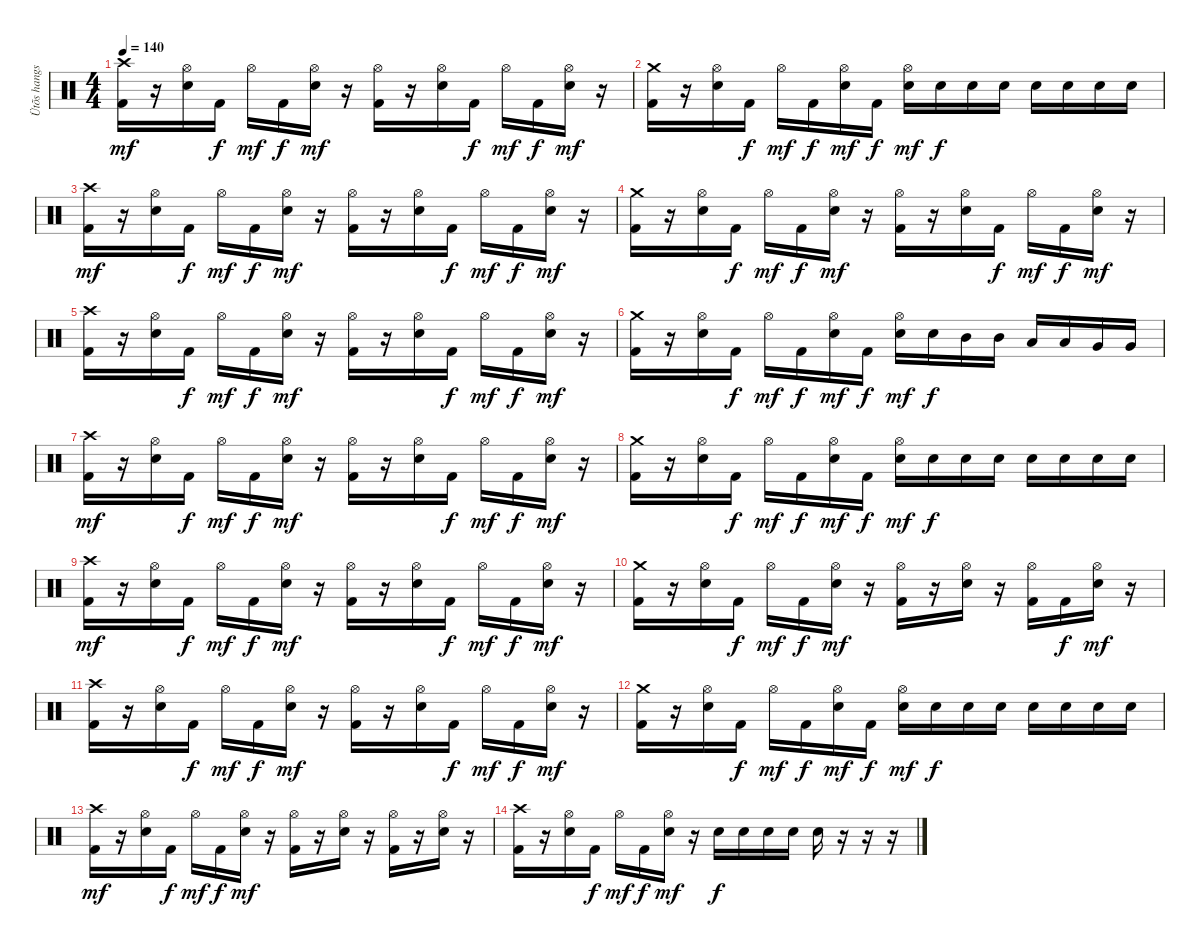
\track ("Ütõs hangszer" "Ütõs hangs") {instrument percussion}
\staff {score}
\articulation defaults
\ts (4 4)
\tempo 140
\clef neutral
\ks c
("Crash high (hit)" "Kick (hit) 2").16{dy mf} r.16 ("Hi-Hat (open)" "Electric Snare (hit)").16 "Kick (hit) 2".16{dy f} "Hi-Hat (open)".16{dy mf} "Kick (hit) 2".16{dy f} ("Hi-Hat (open)" "Electric Snare (hit)").16{dy mf} r.16 ("Hi-Hat (open)" "Kick (hit) 2").16 r.16 ("Hi-Hat (open)" "Electric Snare (hit)").16 "Kick (hit) 2".16{dy f} "Hi-Hat (open)".16{dy mf} "Kick (hit) 2".16{dy f} ("Hi-Hat (open)" "Electric Snare (hit)").16{dy mf} r.16 |
("Crash medium (hit)" "Kick (hit) 2").16 r.16 ("Hi-Hat (open)" "Electric Snare (hit)").16 "Kick (hit) 2".16{dy f} "Hi-Hat (open)".16{dy mf} "Kick (hit) 2".16{dy f} ("Hi-Hat (open)" "Electric Snare (hit)").16{dy mf} "Kick (hit) 2".16{dy f} ("Hi-Hat (open)" "Electric Snare (hit)").16{dy mf} "Electric Snare (hit)".16{dy f} "Electric Snare (hit)".16 "Electric Snare (hit)".16 "Electric Snare (hit)".16 "Electric Snare (hit)".16 "Electric Snare (hit)".16 "Electric Snare (hit)".16 |
("Crash high (hit)" "Kick (hit) 2").16{dy mf} r.16 ("Hi-Hat (open)" "Electric Snare (hit)").16 "Kick (hit) 2".16{dy f} "Hi-Hat (open)".16{dy mf} "Kick (hit) 2".16{dy f} ("Hi-Hat (open)" "Electric Snare (hit)").16{dy mf} r.16 ("Hi-Hat (open)" "Kick (hit) 2").16 r.16 ("Hi-Hat (open)" "Electric Snare (hit)").16 "Kick (hit) 2".16{dy f} "Hi-Hat (open)".16{dy mf} "Kick (hit) 2".16{dy f} ("Hi-Hat (open)" "Electric Snare (hit)").16{dy mf} r.16 |
("Crash medium (hit)" "Kick (hit) 2").16 r.16 ("Hi-Hat (open)" "Electric Snare (hit)").16 "Kick (hit) 2".16{dy f} "Hi-Hat (open)".16{dy mf} "Kick (hit) 2".16{dy f} ("Hi-Hat (open)" "Electric Snare (hit)").16{dy mf} r.16 ("Hi-Hat (open)" "Kick (hit) 2").16 r.16 ("Hi-Hat (open)" "Electric Snare (hit)").16 "Kick (hit) 2".16{dy f} "Hi-Hat (open)".16{dy mf} "Kick (hit) 2".16{dy f} ("Hi-Hat (open)" "Electric Snare (hit)").16{dy mf} r.16 |
("Crash high (hit)" "Kick (hit) 2").16 r.16 ("Hi-Hat (open)" "Electric Snare (hit)").16 "Kick (hit) 2".16{dy f} "Hi-Hat (open)".16{dy mf} "Kick (hit) 2".16{dy f} ("Hi-Hat (open)" "Electric Snare (hit)").16{dy mf} r.16 ("Hi-Hat (open)" "Kick (hit) 2").16 r.16 ("Hi-Hat (open)" "Electric Snare (hit)").16 "Kick (hit) 2".16{dy f} "Hi-Hat (open)".16{dy mf} "Kick (hit) 2".16{dy f} ("Hi-Hat (open)" "Electric Snare (hit)").16{dy mf} r.16 |
("Crash medium (hit)" "Kick (hit) 2").16 r.16 ("Hi-Hat (open)" "Electric Snare (hit)").16 "Kick (hit) 2".16{dy f} "Hi-Hat (open)".16{dy mf} "Kick (hit) 2".16{dy f} ("Hi-Hat (open)" "Electric Snare (hit)").16{dy mf} "Kick (hit) 2".16{dy f} ("Hi-Hat (open)" "Electric Snare (hit)").16{dy mf} "Electric Snare (hit)".16{dy f} "Mid Tom (hit)".16 "Mid Tom (hit)".16 "Low Tom (hit)".16 "Low Tom (hit)".16 "Very Low Tom (hit)".16 "Very Low Tom (hit)".16 |
("Crash high (hit)" "Kick (hit) 2").16{dy mf} r.16 ("Hi-Hat (open)" "Electric Snare (hit)").16 "Kick (hit) 2".16{dy f} "Hi-Hat (open)".16{dy mf} "Kick (hit) 2".16{dy f} ("Hi-Hat (open)" "Electric Snare (hit)").16{dy mf} r.16 ("Hi-Hat (open)" "Kick (hit) 2").16 r.16 ("Hi-Hat (open)" "Electric Snare (hit)").16 "Kick (hit) 2".16{dy f} "Hi-Hat (open)".16{dy mf} "Kick (hit) 2".16{dy f} ("Hi-Hat (open)" "Electric Snare (hit)").16{dy mf} r.16 |
("Crash medium (hit)" "Kick (hit) 2").16 r.16 ("Hi-Hat (open)" "Electric Snare (hit)").16 "Kick (hit) 2".16{dy f} "Hi-Hat (open)".16{dy mf} "Kick (hit) 2".16{dy f} ("Hi-Hat (open)" "Electric Snare (hit)").16{dy mf} "Kick (hit) 2".16{dy f} ("Hi-Hat (open)" "Electric Snare (hit)").16{dy mf} "Electric Snare (hit)".16{dy f} "Electric Snare (hit)".16 "Electric Snare (hit)".16 "Electric Snare (hit)".16 "Electric Snare (hit)".16 "Electric Snare (hit)".16 "Electric Snare (hit)".16 |
("Crash high (hit)" "Kick (hit) 2").16{dy mf} r.16 ("Hi-Hat (open)" "Electric Snare (hit)").16 "Kick (hit) 2".16{dy f} "Hi-Hat (open)".16{dy mf} "Kick (hit) 2".16{dy f} ("Hi-Hat (open)" "Electric Snare (hit)").16{dy mf} r.16 ("Hi-Hat (open)" "Kick (hit) 2").16 r.16 ("Hi-Hat (open)" "Electric Snare (hit)").16 "Kick (hit) 2".16{dy f} "Hi-Hat (open)".16{dy mf} "Kick (hit) 2".16{dy f} ("Hi-Hat (open)" "Electric Snare (hit)").16{dy mf} r.16 |
("Crash medium (hit)" "Kick (hit) 2").16 r.16 ("Hi-Hat (open)" "Electric Snare (hit)").16 "Kick (hit) 2".16{dy f} "Hi-Hat (open)".16{dy mf} "Kick (hit) 2".16{dy f} ("Hi-Hat (open)" "Electric Snare (hit)").16{dy mf} r.16 ("Hi-Hat (open)" "Kick (hit) 2").16 r.16 ("Hi-Hat (open)" "Electric Snare (hit)").16 r.16 ("Hi-Hat (open)" "Kick (hit) 2").16 "Kick (hit) 2".16{dy f} ("Hi-Hat (open)" "Electric Snare (hit)").16{dy mf} r.16 |
("Crash high (hit)" "Kick (hit) 2").16 r.16 ("Hi-Hat (open)" "Electric Snare (hit)").16 "Kick (hit) 2".16{dy f} "Hi-Hat (open)".16{dy mf} "Kick (hit) 2".16{dy f} ("Hi-Hat (open)" "Electric Snare (hit)").16{dy mf} r.16 ("Hi-Hat (open)" "Kick (hit) 2").16 r.16 ("Hi-Hat (open)" "Electric Snare (hit)").16 "Kick (hit) 2".16{dy f} "Hi-Hat (open)".16{dy mf} "Kick (hit) 2".16{dy f} ("Hi-Hat (open)" "Electric Snare (hit)").16{dy mf} r.16 |
("Crash medium (hit)" "Kick (hit) 2").16 r.16 ("Hi-Hat (open)" "Electric Snare (hit)").16 "Kick (hit) 2".16{dy f} "Hi-Hat (open)".16{dy mf} "Kick (hit) 2".16{dy f} ("Hi-Hat (open)" "Electric Snare (hit)").16{dy mf} "Kick (hit) 2".16{dy f} ("Hi-Hat (open)" "Electric Snare (hit)").16{dy mf} "Electric Snare (hit)".16{dy f} "Electric Snare (hit)".16 "Electric Snare (hit)".16 "Electric Snare (hit)".16 "Electric Snare (hit)".16 "Electric Snare (hit)".16 "Electric Snare (hit)".16 |
("Crash high (hit)" "Kick (hit) 2").16{dy mf} r.16 ("Hi-Hat (open)" "Electric Snare (hit)").16 "Kick (hit) 2".16{dy f} "Hi-Hat (open)".16{dy mf} "Kick (hit) 2".16{dy f} ("Hi-Hat (open)" "Electric Snare (hit)").16{dy mf} r.16 ("Hi-Hat (open)" "Kick (hit) 2").16 r.16 ("Hi-Hat (open)" "Electric Snare (hit)").16 r.16 ("Hi-Hat (open)" "Kick (hit) 2").16 r.16 ("Hi-Hat (open)" "Electric Snare (hit)").16 r.16 |
("Crash high (hit)" "Kick (hit) 2").16 r.16 ("Hi-Hat (open)" "Electric Snare (hit)").16 "Kick (hit) 2".16{dy f} "Hi-Hat (open)".16{dy mf} "Kick (hit) 2".16{dy f} ("Hi-Hat (open)" "Electric Snare (hit)").16{dy mf} r.16 "Electric Snare (hit)".16{dy f} "Electric Snare (hit)".16 "Electric Snare (hit)".16 "Electric Snare (hit)".16 "Electric Snare (hit)".16 r.16 r.16 r.16
